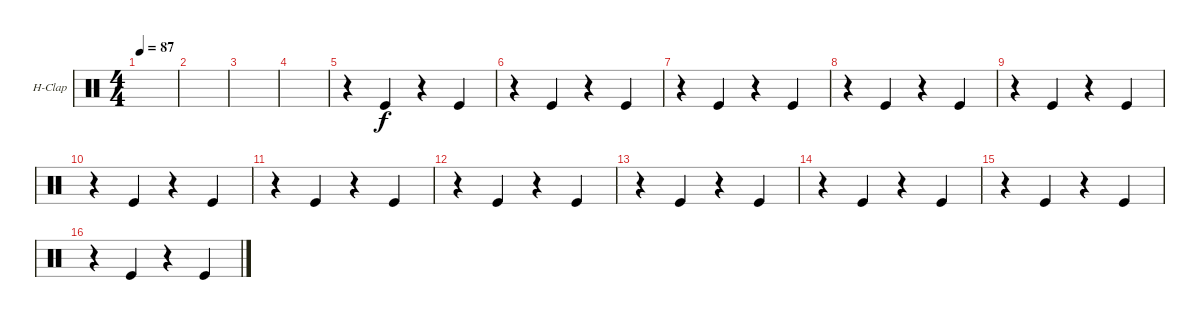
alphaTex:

\defaultSystemsLayout 4
\bracketExtendMode groupsimilarinstruments
\firstSystemTrackNameOrientation horizontal
\otherSystemsTrackNameOrientation horizontal
\track ("Hand Clap" "H-Clap") {instrument percussion}
\staff {score}
\articulation defaults
\ts (4 4)
\tempo 87
\clef neutral
\scale
0.333333
\ks c
|
\scale
0.333333 |
\scale
0.333333 |
\scale
0.333333 |
\scale
0.333333 r.4 "Kick (hit)".4 r.4 "Kick (hit)".4 |
\scale
0.333333 r.4 "Kick (hit)".4 r.4 "Kick (hit)".4 |
\scale
0.333333 r.4 "Kick (hit)".4 r.4 "Kick (hit)".4 |
\scale
0.333333 r.4 "Kick (hit)".4 r.4 "Kick (hit)".4 |
\scale
0.333333 r.4 "Kick (hit)".4 r.4 "Kick (hit)".4 |
\scale
0.333333 r.4 "Kick (hit)".4 r.4 "Kick (hit)".4 |
\scale
0.333333 r.4 "Kick (hit)".4 r.4 "Kick (hit)".4 |
\scale
0.333333 r.4 "Kick (hit)".4 r.4 "Kick (hit)".4 |
\scale
0.333333 r.4 "Kick (hit)".4 r.4 "Kick (hit)".4 |
\scale
0.333333 r.4 "Kick (hit)".4 r.4 "Kick (hit)".4 |
\scale
0.333333 r.4 "Kick (hit)".4 r.4 "Kick (hit)".4 |
\scale
0.333333 r.4 "Kick (hit)".4 r.4 "Kick (hit)".4
